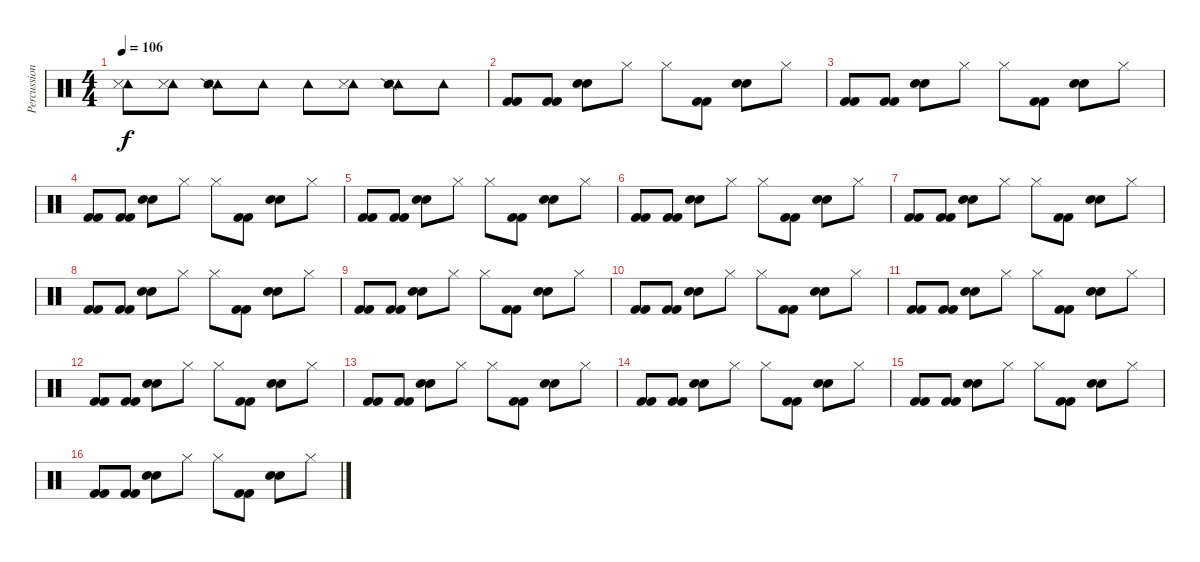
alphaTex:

\track ("Percussion" "Percussion") {instrument percussion}
\staff {score}
\articulation defaults
\ts (4 4)
\tempo 106
\clef neutral
\ks c
("Tambourine (hit)" "Snare (side stick) 3").8{dy f} ("Tambourine (hit)" "Snare (side stick) 3").8 ("Tambourine (hit)" "Snare (side stick) 2").8 "Tambourine (hit)".8 "Tambourine (hit)".8 ("Tambourine (hit)" "Snare (side stick) 3").8 ("Tambourine (hit)" "Snare (side stick) 2").8 "Tambourine (hit)".8 |
("Kick (hit) 2" "Kick (hit) 2").8 ("Kick (hit) 2" "Kick (hit) 2").8 ("Electric Snare (hit)" "Electric Snare (hit)").8 "Hi-Hat (closed)".8 "Hi-Hat (closed)".8 ("Kick (hit) 2" "Kick (hit) 2").8 ("Electric Snare (hit)" "Electric Snare (hit)").8 "Hi-Hat (closed)".8 |
("Kick (hit) 2" "Kick (hit) 2").8 ("Kick (hit) 2" "Kick (hit) 2").8 ("Electric Snare (hit)" "Electric Snare (hit)").8 "Hi-Hat (closed)".8 "Hi-Hat (closed)".8 ("Kick (hit) 2" "Kick (hit) 2").8 ("Electric Snare (hit)" "Electric Snare (hit)").8 "Hi-Hat (closed)".8 |
("Kick (hit) 2" "Kick (hit) 2").8 ("Kick (hit) 2" "Kick (hit) 2").8 ("Electric Snare (hit)" "Electric Snare (hit)").8 "Hi-Hat (closed)".8 "Hi-Hat (closed)".8 ("Kick (hit) 2" "Kick (hit) 2").8 ("Electric Snare (hit)" "Electric Snare (hit)").8 "Hi-Hat (closed)".8 |
("Kick (hit) 2" "Kick (hit) 2").8 ("Kick (hit) 2" "Kick (hit) 2").8 ("Electric Snare (hit)" "Electric Snare (hit)").8 "Hi-Hat (closed)".8 "Hi-Hat (closed)".8 ("Kick (hit) 2" "Kick (hit) 2").8 ("Electric Snare (hit)" "Electric Snare (hit)").8 "Hi-Hat (closed)".8 |
("Kick (hit) 2" "Kick (hit) 2").8 ("Kick (hit) 2" "Kick (hit) 2").8 ("Electric Snare (hit)" "Electric Snare (hit)").8 "Hi-Hat (closed)".8 "Hi-Hat (closed)".8 ("Kick (hit) 2" "Kick (hit) 2").8 ("Electric Snare (hit)" "Electric Snare (hit)").8 "Hi-Hat (closed)".8 |
("Kick (hit) 2" "Kick (hit) 2").8 ("Kick (hit) 2" "Kick (hit) 2").8 ("Electric Snare (hit)" "Electric Snare (hit)").8 "Hi-Hat (closed)".8 "Hi-Hat (closed)".8 ("Kick (hit) 2" "Kick (hit) 2").8 ("Electric Snare (hit)" "Electric Snare (hit)").8 "Hi-Hat (closed)".8 |
("Kick (hit) 2" "Kick (hit) 2").8 ("Kick (hit) 2" "Kick (hit) 2").8 ("Electric Snare (hit)" "Electric Snare (hit)").8 "Hi-Hat (closed)".8 "Hi-Hat (closed)".8 ("Kick (hit) 2" "Kick (hit) 2").8 ("Electric Snare (hit)" "Electric Snare (hit)").8 "Hi-Hat (closed)".8 |
("Kick (hit) 2" "Kick (hit) 2").8 ("Kick (hit) 2" "Kick (hit) 2").8 ("Electric Snare (hit)" "Electric Snare (hit)").8 "Hi-Hat (closed)".8 "Hi-Hat (closed)".8 ("Kick (hit) 2" "Kick (hit) 2").8 ("Electric Snare (hit)" "Electric Snare (hit)").8 "Hi-Hat (closed)".8 |
("Kick (hit) 2" "Kick (hit) 2").8 ("Kick (hit) 2" "Kick (hit) 2").8 ("Electric Snare (hit)" "Electric Snare (hit)").8 "Hi-Hat (closed)".8 "Hi-Hat (closed)".8 ("Kick (hit) 2" "Kick (hit) 2").8 ("Electric Snare (hit)" "Electric Snare (hit)").8 "Hi-Hat (closed)".8 |
("Kick (hit) 2" "Kick (hit) 2").8 ("Kick (hit) 2" "Kick (hit) 2").8 ("Electric Snare (hit)" "Electric Snare (hit)").8 "Hi-Hat (closed)".8 "Hi-Hat (closed)".8 ("Kick (hit) 2" "Kick (hit) 2").8 ("Electric Snare (hit)" "Electric Snare (hit)").8 "Hi-Hat (closed)".8 |
("Kick (hit) 2" "Kick (hit) 2").8 ("Kick (hit) 2" "Kick (hit) 2").8 ("Electric Snare (hit)" "Electric Snare (hit)").8 "Hi-Hat (closed)".8 "Hi-Hat (closed)".8 ("Kick (hit) 2" "Kick (hit) 2").8 ("Electric Snare (hit)" "Electric Snare (hit)").8 "Hi-Hat (closed)".8 |
("Kick (hit) 2" "Kick (hit) 2").8 ("Kick (hit) 2" "Kick (hit) 2").8 ("Electric Snare (hit)" "Electric Snare (hit)").8 "Hi-Hat (closed)".8 "Hi-Hat (closed)".8 ("Kick (hit) 2" "Kick (hit) 2").8 ("Electric Snare (hit)" "Electric Snare (hit)").8 "Hi-Hat (closed)".8 |
("Kick (hit) 2" "Kick (hit) 2").8 ("Kick (hit) 2" "Kick (hit) 2").8 ("Electric Snare (hit)" "Electric Snare (hit)").8 "Hi-Hat (closed)".8 "Hi-Hat (closed)".8 ("Kick (hit) 2" "Kick (hit) 2").8 ("Electric Snare (hit)" "Electric Snare (hit)").8 "Hi-Hat (closed)".8 |
("Kick (hit) 2" "Kick (hit) 2").8 ("Kick (hit) 2" "Kick (hit) 2").8 ("Electric Snare (hit)" "Electric Snare (hit)").8 "Hi-Hat (closed)".8 "Hi-Hat (closed)".8 ("Kick (hit) 2" "Kick (hit) 2").8 ("Electric Snare (hit)" "Electric Snare (hit)").8 "Hi-Hat (closed)".8 |
("Kick (hit) 2" "Kick (hit) 2").8 ("Kick (hit) 2" "Kick (hit) 2").8 ("Electric Snare (hit)" "Electric Snare (hit)").8 "Hi-Hat (closed)".8 "Hi-Hat (closed)".8 ("Kick (hit) 2" "Kick (hit) 2").8 ("Electric Snare (hit)" "Electric Snare (hit)").8 "Hi-Hat (closed)".8
